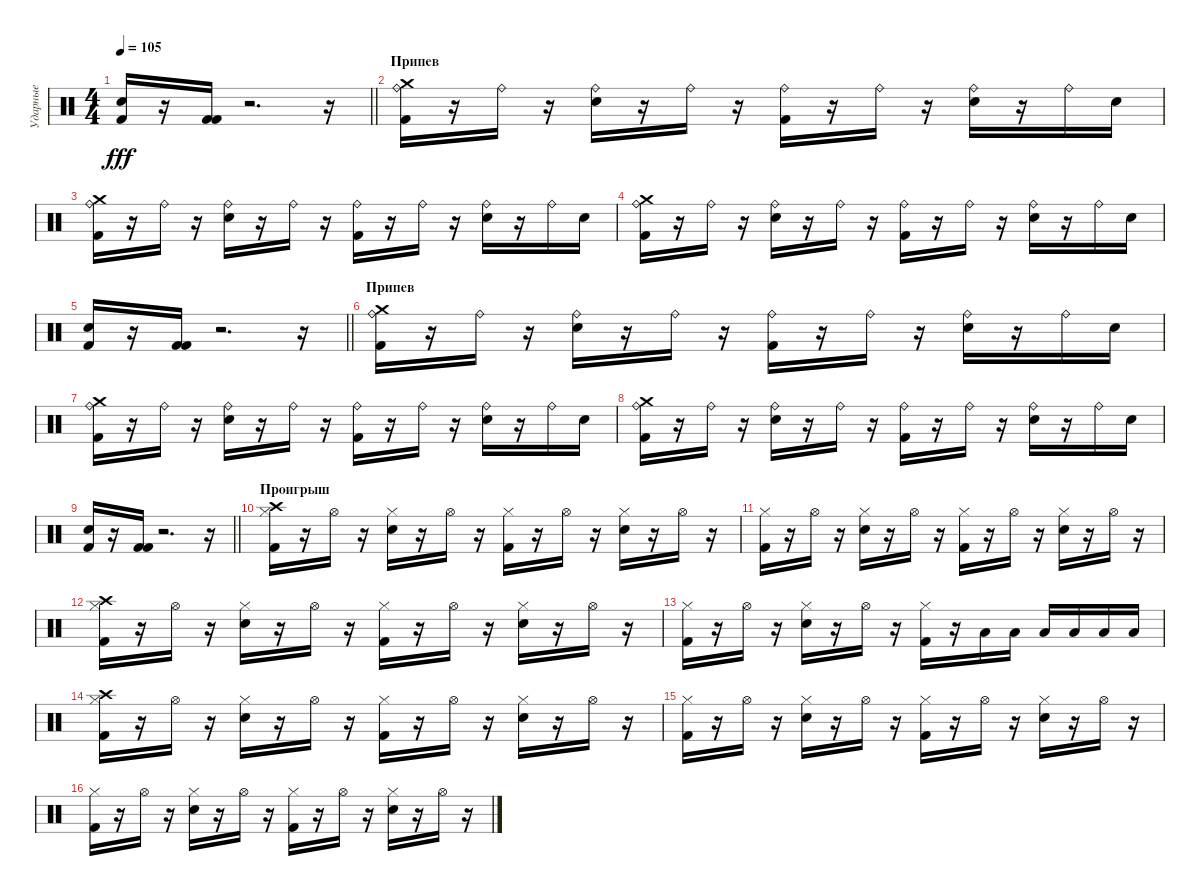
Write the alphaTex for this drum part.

\track ("Ударные" "Ударные") {instrument percussion}
\staff {score}
\articulation defaults
\ts (4 4)
\tempo 105
\clef neutral
\barLineRight lightlight
\ks c
("Kick (hit) 2" "Snare (hit) 2").16{dy fff} r.16 ("Kick (hit) 2" "Kick (hit) 2").16 r.2{d} r.16 |
\section ("" "Припев")
("Kick (hit) 2" "Ride (bell)" "Crash medium (hit)").16 r.16 "Ride (bell)".16 r.16 ("Snare (hit) 2" "Ride (bell)").16 r.16 "Ride (bell)".16 r.16 ("Kick (hit) 2" "Ride (bell)").16 r.16 "Ride (bell)".16 r.16 ("Snare (hit) 2" "Ride (bell)").16 r.16 "Ride (bell)".16 "Snare (hit) 2".16 |
("Kick (hit) 2" "Ride (bell)" "Crash medium (hit)").16 r.16 "Ride (bell)".16 r.16 ("Snare (hit) 2" "Ride (bell)").16 r.16 "Ride (bell)".16 r.16 ("Kick (hit) 2" "Ride (bell)").16 r.16 "Ride (bell)".16 r.16 ("Snare (hit) 2" "Ride (bell)").16 r.16 "Ride (bell)".16 "Snare (hit) 2".16 |
("Kick (hit) 2" "Ride (bell)" "Crash medium (hit)").16 r.16 "Ride (bell)".16 r.16 ("Snare (hit) 2" "Ride (bell)").16 r.16 "Ride (bell)".16 r.16 ("Kick (hit) 2" "Ride (bell)").16 r.16 "Ride (bell)".16 r.16 ("Snare (hit) 2" "Ride (bell)").16 r.16 "Ride (bell)".16 "Snare (hit) 2".16 |
\barLineRight lightlight
("Kick (hit) 2" "Snare (hit) 2").16 r.16 ("Kick (hit) 2" "Kick (hit) 2").16 r.2{d} r.16 |
\section ("" "Припев")
("Kick (hit) 2" "Ride (bell)" "Crash medium (hit)").16 r.16 "Ride (bell)".16 r.16 ("Snare (hit) 2" "Ride (bell)").16 r.16 "Ride (bell)".16 r.16 ("Kick (hit) 2" "Ride (bell)").16 r.16 "Ride (bell)".16 r.16 ("Snare (hit) 2" "Ride (bell)").16 r.16 "Ride (bell)".16 "Snare (hit) 2".16 |
("Kick (hit) 2" "Ride (bell)" "Crash medium (hit)").16 r.16 "Ride (bell)".16 r.16 ("Snare (hit) 2" "Ride (bell)").16 r.16 "Ride (bell)".16 r.16 ("Kick (hit) 2" "Ride (bell)").16 r.16 "Ride (bell)".16 r.16 ("Snare (hit) 2" "Ride (bell)").16 r.16 "Ride (bell)".16 "Snare (hit) 2".16 |
("Kick (hit) 2" "Ride (bell)" "Crash medium (hit)").16 r.16 "Ride (bell)".16 r.16 ("Snare (hit) 2" "Ride (bell)").16 r.16 "Ride (bell)".16 r.16 ("Kick (hit) 2" "Ride (bell)").16 r.16 "Ride (bell)".16 r.16 ("Snare (hit) 2" "Ride (bell)").16 r.16 "Ride (bell)".16 "Snare (hit) 2".16 |
\barLineRight lightlight
("Kick (hit) 2" "Snare (hit) 2").16 r.16 ("Kick (hit) 2" "Kick (hit) 2").16 r.2{d} r.16 |
\section ("" "Проигрыш")
("Kick (hit) 2" "Hi-Hat (closed)" "Crash high (hit)").16 r.16 "Hi-Hat (open)".16 r.16 ("Snare (hit) 2" "Hi-Hat (closed)").16 r.16 "Hi-Hat (open)".16 r.16 ("Kick (hit) 2" "Hi-Hat (closed)").16 r.16 "Hi-Hat (open)".16 r.16 ("Snare (hit) 2" "Hi-Hat (closed)").16 r.16 "Hi-Hat (open)".16 r.16 |
("Kick (hit) 2" "Hi-Hat (closed)").16 r.16 "Hi-Hat (open)".16 r.16 ("Snare (hit) 2" "Hi-Hat (closed)").16 r.16 "Hi-Hat (open)".16 r.16 ("Kick (hit) 2" "Hi-Hat (closed)").16 r.16 "Hi-Hat (open)".16 r.16 ("Snare (hit) 2" "Hi-Hat (closed)").16 r.16 "Hi-Hat (open)".16 r.16 |
("Kick (hit) 2" "Hi-Hat (closed)" "Crash high (hit)").16 r.16 "Hi-Hat (open)".16 r.16 ("Snare (hit) 2" "Hi-Hat (closed)").16 r.16 "Hi-Hat (open)".16 r.16 ("Kick (hit) 2" "Hi-Hat (closed)").16 r.16 "Hi-Hat (open)".16 r.16 ("Snare (hit) 2" "Hi-Hat (closed)").16 r.16 "Hi-Hat (open)".16 r.16 |
("Kick (hit) 2" "Hi-Hat (closed)").16 r.16 "Hi-Hat (open)".16 r.16 ("Snare (hit) 2" "Hi-Hat (closed)").16 r.16 "Hi-Hat (open)".16 r.16 ("Kick (hit) 2" "Hi-Hat (closed)").16 r.16 "Low Tom (hit)".16 "Low Floor Tom (hit)".16 "Low Tom (hit)".16 "Low Floor Tom (hit)".16 "Low Tom (hit)".16 "Low Floor Tom (hit)".16 |
("Kick (hit) 2" "Hi-Hat (closed)" "Crash high (hit)").16 r.16 "Hi-Hat (open)".16 r.16 ("Snare (hit) 2" "Hi-Hat (closed)").16 r.16 "Hi-Hat (open)".16 r.16 ("Kick (hit) 2" "Hi-Hat (closed)").16 r.16 "Hi-Hat (open)".16 r.16 ("Snare (hit) 2" "Hi-Hat (closed)").16 r.16 "Hi-Hat (open)".16 r.16 |
("Kick (hit) 2" "Hi-Hat (closed)").16 r.16 "Hi-Hat (open)".16 r.16 ("Snare (hit) 2" "Hi-Hat (closed)").16 r.16 "Hi-Hat (open)".16 r.16 ("Kick (hit) 2" "Hi-Hat (closed)").16 r.16 "Hi-Hat (open)".16 r.16 ("Snare (hit) 2" "Hi-Hat (closed)").16 r.16 "Hi-Hat (open)".16 r.16 |
("Kick (hit) 2" "Hi-Hat (closed)").16 r.16 "Hi-Hat (open)".16 r.16 ("Snare (hit) 2" "Hi-Hat (closed)").16 r.16 "Hi-Hat (open)".16 r.16 ("Kick (hit) 2" "Hi-Hat (closed)").16 r.16 "Hi-Hat (open)".16 r.16 ("Snare (hit) 2" "Hi-Hat (closed)").16 r.16 "Hi-Hat (open)".16 r.16
